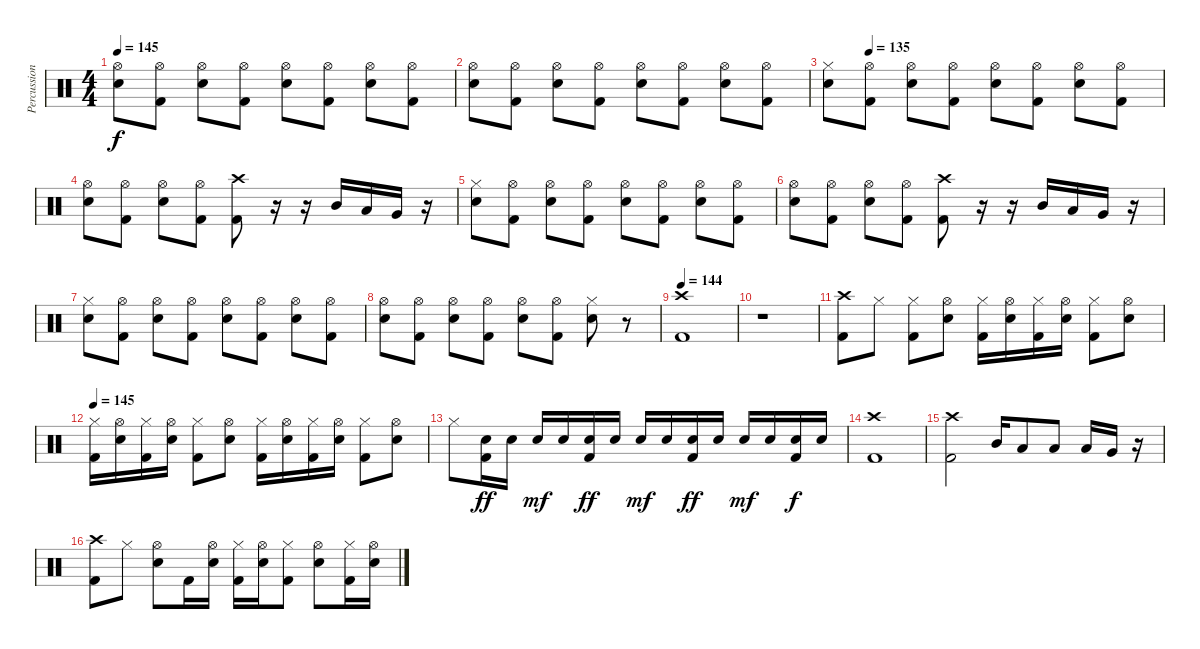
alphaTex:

\track ("Percussioni" "Percussion") {instrument percussion}
\staff {score}
\articulation defaults
\ts (4 4)
\tempo 145
\tempo 130
\tempo 145
\clef neutral
\ks c
("Hi-Hat (open)" "Snare (hit) 2").8{dy f} ("Hi-Hat (open)" "Kick (hit) 2").8 ("Hi-Hat (open)" "Snare (hit) 2").8 ("Hi-Hat (open)" "Kick (hit) 2").8 ("Hi-Hat (open)" "Snare (hit) 2").8 ("Hi-Hat (open)" "Kick (hit) 2").8 ("Hi-Hat (open)" "Snare (hit) 2").8 ("Hi-Hat (open)" "Kick (hit) 2").8 |
("Hi-Hat (open)" "Snare (hit) 2").8 ("Hi-Hat (open)" "Kick (hit) 2").8 ("Hi-Hat (open)" "Snare (hit) 2").8 ("Hi-Hat (open)" "Kick (hit) 2").8 ("Hi-Hat (open)" "Snare (hit) 2").8 ("Hi-Hat (open)" "Kick (hit) 2").8 ("Hi-Hat (open)" "Snare (hit) 2").8 ("Hi-Hat (open)" "Kick (hit) 2").8 |
\tempo (135 0.125)
("Hi-Hat (closed)" "Snare (hit) 2").8 ("Hi-Hat (open)" "Kick (hit) 2").8 ("Hi-Hat (open)" "Snare (hit) 2").8 ("Hi-Hat (open)" "Kick (hit) 2").8 ("Hi-Hat (open)" "Snare (hit) 2").8 ("Hi-Hat (open)" "Kick (hit) 2").8 ("Hi-Hat (open)" "Snare (hit) 2").8 ("Hi-Hat (open)" "Kick (hit) 2").8 |
("Hi-Hat (open)" "Snare (hit) 2").8 ("Hi-Hat (open)" "Kick (hit) 2").8 ("Hi-Hat (open)" "Snare (hit) 2").8 ("Hi-Hat (open)" "Kick (hit) 2").8 ("Crash high (hit)" "Kick (hit) 2").8 r.16 r.16 "Mid Tom (hit)".16 "Low Tom (hit)".16 "Very Low Tom (hit)".16 r.16 |
("Hi-Hat (closed)" "Snare (hit) 2").8 ("Hi-Hat (open)" "Kick (hit) 2").8 ("Hi-Hat (open)" "Snare (hit) 2").8 ("Hi-Hat (open)" "Kick (hit) 2").8 ("Hi-Hat (open)" "Snare (hit) 2").8 ("Hi-Hat (open)" "Kick (hit) 2").8 ("Hi-Hat (open)" "Snare (hit) 2").8 ("Hi-Hat (open)" "Kick (hit) 2").8 |
("Hi-Hat (open)" "Snare (hit) 2").8 ("Hi-Hat (open)" "Kick (hit) 2").8 ("Hi-Hat (open)" "Snare (hit) 2").8 ("Hi-Hat (open)" "Kick (hit) 2").8 ("Crash high (hit)" "Kick (hit) 2").8 r.16 r.16 "Mid Tom (hit)".16 "Low Tom (hit)".16 "Very Low Tom (hit)".16 r.16 |
("Hi-Hat (closed)" "Snare (hit) 2").8 ("Hi-Hat (open)" "Kick (hit) 2").8 ("Hi-Hat (open)" "Snare (hit) 2").8 ("Hi-Hat (open)" "Kick (hit) 2").8 ("Hi-Hat (open)" "Snare (hit) 2").8 ("Hi-Hat (open)" "Kick (hit) 2").8 ("Hi-Hat (open)" "Snare (hit) 2").8 ("Hi-Hat (open)" "Kick (hit) 2").8 |
("Hi-Hat (open)" "Snare (hit) 2").8 ("Hi-Hat (open)" "Kick (hit) 2").8 ("Hi-Hat (open)" "Snare (hit) 2").8 ("Hi-Hat (open)" "Kick (hit) 2").8 ("Hi-Hat (open)" "Snare (hit) 2").8 ("Hi-Hat (open)" "Kick (hit) 2").8 ("Hi-Hat (closed)" "Snare (hit) 2").8 r.8 |
\tempo 144
("Crash high (hit)" "Kick (hit) 2").1 |
r.1 |
("Crash high (hit)" "Kick (hit) 2").8 "Hi-Hat (closed)".8 ("Hi-Hat (closed)" "Kick (hit) 2").8 ("Hi-Hat (open)" "Snare (hit) 2").8 ("Hi-Hat (closed)" "Kick (hit) 2").16 ("Hi-Hat (open)" "Snare (hit) 2").16 ("Hi-Hat (closed)" "Kick (hit) 2").16 ("Hi-Hat (open)" "Snare (hit) 2").16 ("Hi-Hat (closed)" "Kick (hit) 2").8 ("Hi-Hat (open)" "Snare (hit) 2").8 |
\tempo 145
("Hi-Hat (closed)" "Kick (hit) 2").16 ("Hi-Hat (open)" "Snare (hit) 2").16 ("Hi-Hat (closed)" "Kick (hit) 2").16 ("Hi-Hat (open)" "Snare (hit) 2").16 ("Hi-Hat (closed)" "Kick (hit) 2").8 ("Hi-Hat (open)" "Snare (hit) 2").8 ("Hi-Hat (closed)" "Kick (hit) 2").16 ("Hi-Hat (open)" "Snare (hit) 2").16 ("Hi-Hat (closed)" "Kick (hit) 2").16 ("Hi-Hat (open)" "Snare (hit) 2").16 ("Hi-Hat (closed)" "Kick (hit) 2").8 ("Hi-Hat (open)" "Snare (hit) 2").8 |
"Hi-Hat (closed)".8 ("Snare (hit) 2" "Kick (hit) 2").16{dy ff} "Snare (hit) 2".16 "Snare (hit) 2".16{dy mf} "Snare (hit) 2".16 ("Snare (hit) 2" "Kick (hit) 2").16{dy ff} "Snare (hit) 2".16 "Snare (hit) 2".16{dy mf} "Snare (hit) 2".16 ("Snare (hit) 2" "Kick (hit) 2").16{dy ff} "Snare (hit) 2".16 "Snare (hit) 2".16{dy mf} "Snare (hit) 2".16 ("Snare (hit) 2" "Kick (hit) 2").16{dy f} "Snare (hit) 2".16 |
("Crash high (hit)" "Kick (hit) 2").1 |
("Crash high (hit)" "Kick (hit) 2").2 "Mid Tom (hit)".16 "Low Tom (hit)".8 "Low Tom (hit)".8 "Low Tom (hit)".16 "Very Low Tom (hit)".16 r.16 |
("Crash high (hit)" "Kick (hit) 2").8 "Hi-Hat (closed)".8 ("Hi-Hat (open)" "Snare (hit) 2").8 "Kick (hit) 2".16 ("Hi-Hat (open)" "Snare (hit) 2").16 ("Hi-Hat (closed)" "Kick (hit) 2").16 ("Hi-Hat (open)" "Snare (hit) 2").16 ("Hi-Hat (closed)" "Kick (hit) 2").8 ("Hi-Hat (open)" "Snare (hit) 2").8 ("Hi-Hat (closed)" "Kick (hit) 2").16 ("Hi-Hat (open)" "Snare (hit) 2").16
